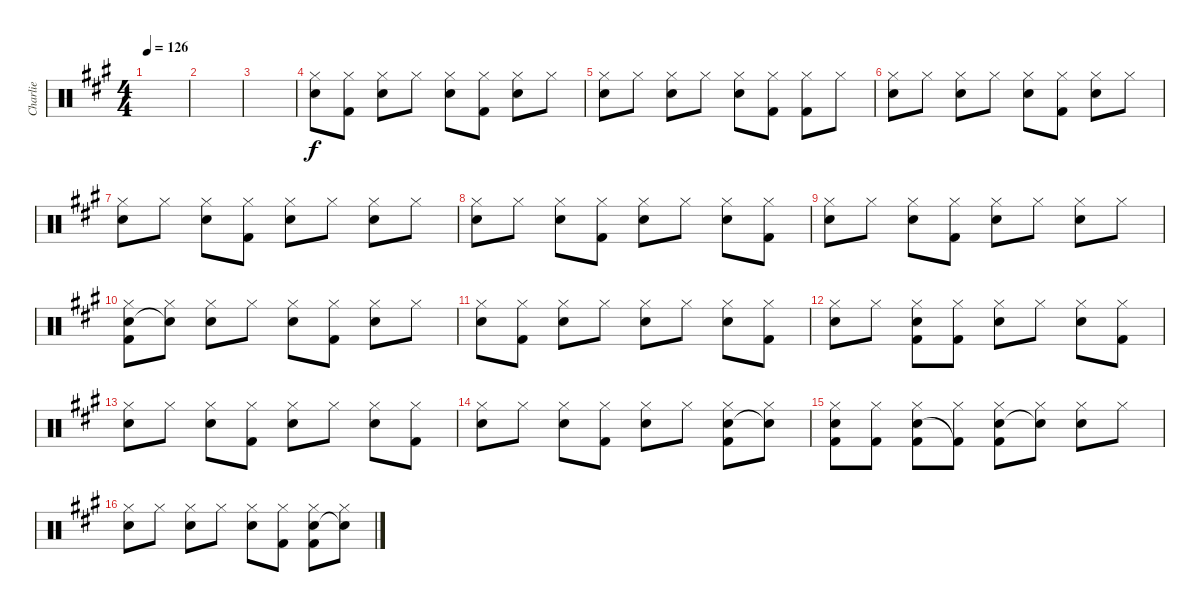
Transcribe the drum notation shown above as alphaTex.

\track ("Charlie" "Charlie") {instrument percussion}
\staff {score}
\articulation defaults
\ts (4 4)
\tempo 126
\clef neutral
\ks a
|
|
|
("Hi-Hat (closed)" "Snare (hit) 2").8 ("Hi-Hat (closed)" "Kick (hit) 2").8 ("Hi-Hat (closed)" "Snare (hit) 2").8 "Hi-Hat (closed)".8 ("Hi-Hat (closed)" "Snare (hit) 2").8 ("Hi-Hat (closed)" "Kick (hit) 2").8 ("Hi-Hat (closed)" "Snare (hit) 2").8 "Hi-Hat (closed)".8 |
("Hi-Hat (closed)" "Snare (hit) 2").8 "Hi-Hat (closed)".8 ("Hi-Hat (closed)" "Snare (hit) 2").8 "Hi-Hat (closed)".8 ("Hi-Hat (closed)" "Snare (hit) 2").8 ("Hi-Hat (closed)" "Kick (hit) 2").8 ("Hi-Hat (closed)" "Kick (hit) 2").8 "Hi-Hat (closed)".8 |
("Hi-Hat (closed)" "Snare (hit) 2").8 "Hi-Hat (closed)".8 ("Hi-Hat (closed)" "Snare (hit) 2").8 "Hi-Hat (closed)".8 ("Hi-Hat (closed)" "Snare (hit) 2").8 ("Hi-Hat (closed)" "Kick (hit) 2").8 ("Hi-Hat (closed)" "Snare (hit) 2").8 "Hi-Hat (closed)".8 |
("Hi-Hat (closed)" "Snare (hit) 2").8 "Hi-Hat (closed)".8 ("Hi-Hat (closed)" "Snare (hit) 2").8 ("Hi-Hat (closed)" "Kick (hit) 2").8 ("Hi-Hat (closed)" "Snare (hit) 2").8 "Hi-Hat (closed)".8 ("Hi-Hat (closed)" "Snare (hit) 2").8 "Hi-Hat (closed)".8 |
("Hi-Hat (closed)" "Snare (hit) 2").8 "Hi-Hat (closed)".8 ("Hi-Hat (closed)" "Snare (hit) 2").8 ("Hi-Hat (closed)" "Kick (hit) 2").8 ("Hi-Hat (closed)" "Snare (hit) 2").8 "Hi-Hat (closed)".8 ("Hi-Hat (closed)" "Snare (hit) 2").8 ("Hi-Hat (closed)" "Kick (hit) 2").8 |
("Hi-Hat (closed)" "Snare (hit) 2").8 "Hi-Hat (closed)".8 ("Hi-Hat (closed)" "Snare (hit) 2").8 ("Hi-Hat (closed)" "Kick (hit) 2").8 ("Hi-Hat (closed)" "Snare (hit) 2").8 "Hi-Hat (closed)".8 ("Hi-Hat (closed)" "Snare (hit) 2").8 "Hi-Hat (closed)".8 |
("Hi-Hat (closed)" "Snare (hit) 2" "Kick (hit) 2").8 ("Hi-Hat (closed)" "Snare (hit)"{t}).8 ("Hi-Hat (closed)" "Snare (hit) 2").8 "Hi-Hat (closed)".8 ("Hi-Hat (closed)" "Snare (hit) 2").8 ("Hi-Hat (closed)" "Kick (hit) 2").8 ("Hi-Hat (closed)" "Snare (hit) 2").8 "Hi-Hat (closed)".8 |
("Hi-Hat (closed)" "Snare (hit) 2").8 ("Hi-Hat (closed)" "Kick (hit) 2").8 ("Hi-Hat (closed)" "Snare (hit) 2").8 "Hi-Hat (closed)".8 ("Hi-Hat (closed)" "Snare (hit) 2").8 "Hi-Hat (closed)".8 ("Hi-Hat (closed)" "Snare (hit) 2").8 ("Hi-Hat (closed)" "Kick (hit) 2").8 |
("Hi-Hat (closed)" "Snare (hit) 2").8 "Hi-Hat (closed)".8 ("Hi-Hat (closed)" "Snare (hit) 2" "Kick (hit) 2").8 ("Hi-Hat (closed)" "Kick (hit) 2").8 ("Hi-Hat (closed)" "Snare (hit) 2").8 "Hi-Hat (closed)".8 ("Hi-Hat (closed)" "Snare (hit) 2").8 ("Hi-Hat (closed)" "Kick (hit) 2").8 |
("Hi-Hat (closed)" "Snare (hit) 2").8 "Hi-Hat (closed)".8 ("Hi-Hat (closed)" "Snare (hit) 2").8 ("Hi-Hat (closed)" "Kick (hit) 2").8 ("Hi-Hat (closed)" "Snare (hit) 2").8 "Hi-Hat (closed)".8 ("Hi-Hat (closed)" "Snare (hit) 2").8 ("Hi-Hat (closed)" "Kick (hit) 2").8 |
("Hi-Hat (closed)" "Snare (hit) 2").8 "Hi-Hat (closed)".8 ("Hi-Hat (closed)" "Snare (hit) 2").8 ("Hi-Hat (closed)" "Kick (hit) 2").8 ("Hi-Hat (closed)" "Snare (hit) 2").8 "Hi-Hat (closed)".8 ("Hi-Hat (closed)" "Snare (hit) 2" "Kick (hit) 2").8 ("Hi-Hat (closed)" "Snare (hit)"{t}).8 |
("Hi-Hat (closed)" "Snare (hit) 2" "Kick (hit) 2").8 ("Hi-Hat (closed)" "Kick (hit) 2").8 ("Hi-Hat (closed)" "Snare (hit) 2" "Kick (hit) 2").8 ("Hi-Hat (closed)" "Kick (hit) 2"{t}).8 ("Hi-Hat (closed)" "Snare (hit) 2" "Kick (hit) 2").8 ("Hi-Hat (closed)" "Snare (hit)"{t}).8 ("Hi-Hat (closed)" "Snare (hit) 2").8 "Hi-Hat (closed)".8 |
("Hi-Hat (closed)" "Snare (hit) 2").8 "Hi-Hat (closed)".8 ("Hi-Hat (closed)" "Snare (hit) 2").8 "Hi-Hat (closed)".8 ("Hi-Hat (closed)" "Snare (hit) 2").8 ("Hi-Hat (closed)" "Kick (hit) 2").8 ("Hi-Hat (closed)" "Snare (hit) 2" "Kick (hit) 2").8 ("Hi-Hat (closed)" "Snare (hit)"{t}).8
